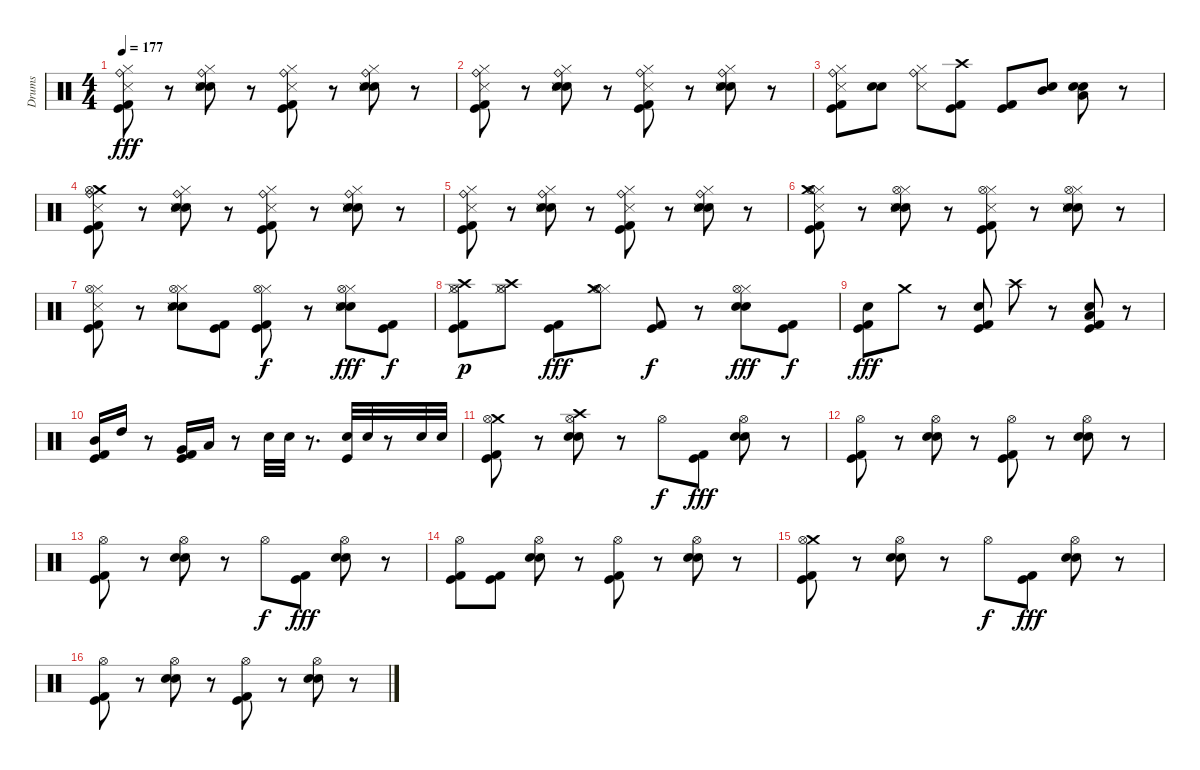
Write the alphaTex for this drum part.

\track ("Drums" "Drums") {instrument percussion}
\staff {score}
\articulation defaults
\ts (4 4)
\tempo 177
\clef neutral
\ks c
("Hi-Hat (closed)" "Kick (hit) 2" "Kick (hit)" "Snare (side stick) 3" "Ride (bell)").8{dy fff} r.8 ("Hi-Hat (closed)" "Electric Snare (hit)" "Snare (hit) 2" "Snare (side stick) 3" "Ride (bell)").8 r.8 ("Hi-Hat (closed)" "Kick (hit) 2" "Kick (hit)" "Snare (side stick) 3" "Ride (bell)").8 r.8 ("Hi-Hat (closed)" "Electric Snare (hit)" "Snare (hit) 2" "Snare (side stick) 3" "Ride (bell)").8 r.8 |
("Hi-Hat (closed)" "Kick (hit) 2" "Kick (hit)" "Ride (bell)" "Snare (side stick) 3").8 r.8 ("Hi-Hat (closed)" "Electric Snare (hit)" "Snare (hit) 2" "Ride (bell)" "Snare (side stick) 3").8 r.8 ("Hi-Hat (closed)" "Kick (hit) 2" "Kick (hit)" "Ride (bell)" "Snare (side stick) 3").8 r.8 ("Hi-Hat (closed)" "Electric Snare (hit)" "Snare (hit) 2" "Ride (bell)" "Snare (side stick) 3").8 r.8 |
("Kick (hit) 2" "Kick (hit)" "Ride (bell)" "Hi-Hat (closed)" "Snare (side stick) 3").8 ("Electric Snare (hit)" "Snare (hit) 2").8 ("Ride (bell)" "Hi-Hat (closed)" "Snare (side stick) 3").8 ("Kick (hit) 2" "Kick (hit)" "Crash high (hit)").8 ("Kick (hit) 2" "Kick (hit)").8 ("Electric Snare (hit)" "Mid Tom (hit)").8 ("Electric Snare (hit)" "Snare (hit) 2" "Low Tom (hit)").8 r.8 |
("Crash medium (hit)" "Kick (hit) 2" "Kick (hit)" "Hi-Hat (open)" "Snare (side stick) 3" "Ride (bell)").8 r.8 ("Hi-Hat (closed)" "Electric Snare (hit)" "Snare (hit) 2" "Snare (side stick) 3" "Ride (bell)").8 r.8 ("Hi-Hat (closed)" "Kick (hit) 2" "Kick (hit)" "Snare (side stick) 3" "Ride (bell)").8 r.8 ("Hi-Hat (closed)" "Electric Snare (hit)" "Snare (hit) 2" "Snare (side stick) 3" "Ride (bell)").8 r.8 |
("Hi-Hat (closed)" "Kick (hit) 2" "Kick (hit)" "Snare (side stick) 3" "Ride (bell)").8 r.8 ("Hi-Hat (closed)" "Electric Snare (hit)" "Snare (hit) 2" "Snare (side stick) 3" "Ride (bell)").8 r.8 ("Hi-Hat (closed)" "Kick (hit) 2" "Kick (hit)" "Snare (side stick) 3" "Ride (bell)").8 r.8 ("Hi-Hat (closed)" "Electric Snare (hit)" "Snare (hit) 2" "Snare (side stick) 3" "Ride (bell)").8 r.8 |
("Hi-Hat (closed)" "Kick (hit) 2" "Kick (hit)" "Snare (side stick) 3" "Crash medium (hit)" "Hi-Hat (open)").8 r.8 ("Hi-Hat (closed)" "Electric Snare (hit)" "Snare (hit) 2" "Snare (side stick) 3" "Hi-Hat (open)").8 r.8 ("Hi-Hat (closed)" "Kick (hit) 2" "Kick (hit)" "Snare (side stick) 3" "Hi-Hat (open)").8 r.8 ("Hi-Hat (closed)" "Electric Snare (hit)" "Snare (hit) 2" "Snare (side stick) 3" "Hi-Hat (open)").8 r.8 |
("Kick (hit) 2" "Kick (hit)" "Hi-Hat (closed)" "Snare (side stick) 3" "Hi-Hat (open)").8 r.8 ("Hi-Hat (closed)" "Hi-Hat (open)" "Electric Snare (hit)" "Snare (hit) 2" "Snare (side stick) 3").8 ("Kick (hit) 2" "Kick (hit)").8 ("Hi-Hat (closed)" "Kick (hit) 2" "Kick (hit)" "Hi-Hat (open)").8{dy f} r.8 ("Electric Snare (hit)" "Snare (hit) 2" "Hi-Hat (closed)" "Snare (side stick) 3" "Hi-Hat (open)").8{dy fff} ("Kick (hit) 2" "Kick (hit)").8{dy f} |
("Kick (hit) 2" "Kick (hit)" "Hi-Hat (closed)" "Hi-Hat (open)" "Crash high (hit)").8{dy p} ("Hi-Hat (closed)" "Hi-Hat (open)" "Crash high (hit)").8 ("Kick (hit) 2" "Kick (hit)").8{dy fff} ("Hi-Hat (closed)" "Hi-Hat (open)" "Crash medium (hit)").8 ("Kick (hit) 2" "Kick (hit)").8{dy f} r.8 ("Snare (hit) 2" "Electric Snare (hit)" "Hi-Hat (closed)" "Hi-Hat (open)").8{dy fff} ("Kick (hit) 2" "Kick (hit)").8{dy f} |
("Electric Snare (hit)" "Kick (hit) 2" "Kick (hit)").8{dy fff} "Crash medium (hit)".8 r.8 ("Electric Snare (hit)" "Kick (hit) 2" "Kick (hit)").8 "Crash high (hit)".8 r.8 ("Electric Snare (hit)" "Kick (hit) 2" "Kick (hit)" "Low Tom (hit)").8 r.8 |
("Kick (hit) 2" "Kick (hit)" "Mid Tom (hit)").16 "High Tom (hit)".16 r.8 ("Kick (hit) 2" "Kick (hit)" "Very Low Tom (hit)").16 "Low Tom (hit)".16 r.8 "Electric Snare (hit)".32 "Electric Snare (hit)".32 r.8{d} ("Kick (hit)" "Electric Snare (hit)").32 "Electric Snare (hit)".32 r.8 "Electric Snare (hit)".32 "Electric Snare (hit)".32 |
("Crash medium (hit)" "Hi-Hat (open)" "Kick (hit) 2" "Kick (hit)").8 r.8 ("Crash high (hit)" "Hi-Hat (open)" "Snare (hit) 2" "Electric Snare (hit)").8 r.8 "Hi-Hat (open)".8{dy f} ("Kick (hit) 2" "Kick (hit)").8{dy fff} ("Hi-Hat (open)" "Electric Snare (hit)" "Snare (hit) 2").8 r.8 |
("Hi-Hat (open)" "Kick (hit) 2" "Kick (hit)").8 r.8 ("Hi-Hat (open)" "Snare (hit) 2" "Electric Snare (hit)").8 r.8 ("Hi-Hat (open)" "Kick (hit) 2" "Kick (hit)").8 r.8 ("Hi-Hat (open)" "Electric Snare (hit)" "Snare (hit) 2").8 r.8 |
("Hi-Hat (open)" "Kick (hit) 2" "Kick (hit)").8 r.8 ("Hi-Hat (open)" "Snare (hit) 2" "Electric Snare (hit)").8 r.8 "Hi-Hat (open)".8{dy f} ("Kick (hit) 2" "Kick (hit)").8{dy fff} ("Hi-Hat (open)" "Electric Snare (hit)" "Snare (hit) 2").8 r.8 |
("Hi-Hat (open)" "Kick (hit) 2" "Kick (hit)").8 ("Kick (hit) 2" "Kick (hit)").8 ("Hi-Hat (open)" "Snare (hit) 2" "Electric Snare (hit)").8 r.8 ("Hi-Hat (open)" "Kick (hit) 2" "Kick (hit)").8 r.8 ("Hi-Hat (open)" "Electric Snare (hit)" "Snare (hit) 2").8 r.8 |
("Crash medium (hit)" "Hi-Hat (open)" "Kick (hit) 2" "Kick (hit)").8 r.8 ("Hi-Hat (open)" "Snare (hit) 2" "Electric Snare (hit)").8 r.8 "Hi-Hat (open)".8{dy f} ("Kick (hit) 2" "Kick (hit)").8{dy fff} ("Hi-Hat (open)" "Electric Snare (hit)" "Snare (hit) 2").8 r.8 |
("Hi-Hat (open)" "Kick (hit) 2" "Kick (hit)").8 r.8 ("Hi-Hat (open)" "Snare (hit) 2" "Electric Snare (hit)").8 r.8 ("Hi-Hat (open)" "Kick (hit) 2" "Kick (hit)").8 r.8 ("Hi-Hat (open)" "Electric Snare (hit)" "Snare (hit) 2").8 r.8
